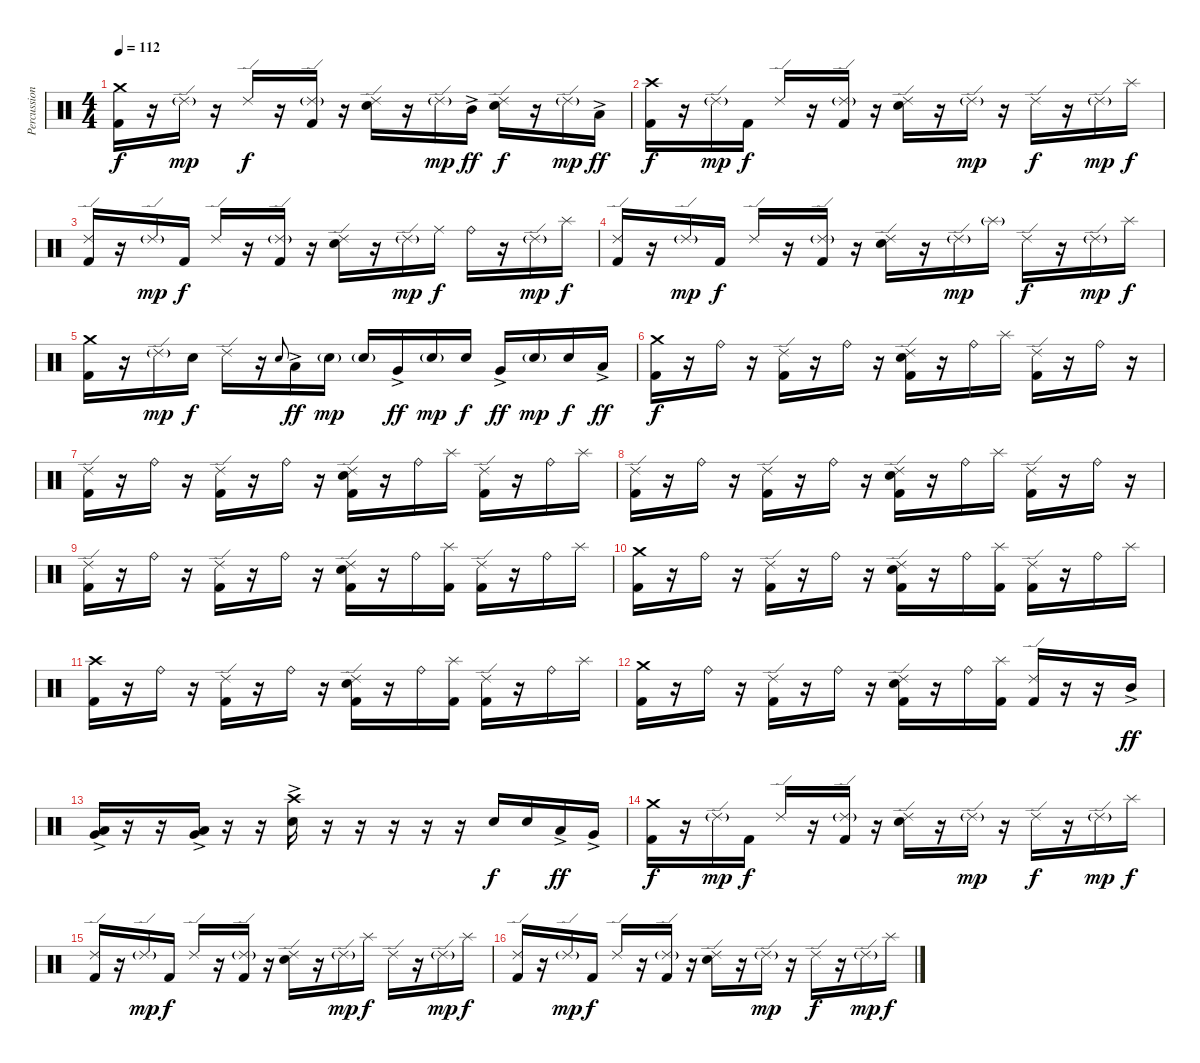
\track ("Percussion" "Percussion") {instrument percussion}
\staff {score}
\articulation defaults
\ts (4 4)
\tempo 112
\clef neutral
\ks c
("Crash medium (hit)" "Kick (hit) 2").16{dy f} r.16 "Ride (edge) 2"{g}.16{dy mp} r.16 "Ride (edge) 2".16{dy f} r.16 ("Ride (edge) 2"{g} "Kick (hit) 2").16 r.16 ("Ride (edge) 2" "Electric Snare (hit)").16 r.16 "Ride (edge) 2"{g}.16{dy mp} "Mid Tom (hit)"{ac}.16{dy ff} ("Ride (edge) 2" "Electric Snare (hit)").16{dy f} r.16 "Ride (edge) 2"{g}.16{dy mp} "Low Tom (hit)"{ac}.16{dy ff} |
("Crash high (hit)" "Kick (hit) 2").16{dy f} r.16 "Ride (edge) 2"{g}.16{dy mp} "Kick (hit) 2".16{dy f} "Ride (edge) 2".16 r.16 ("Ride (edge) 2"{g} "Kick (hit) 2").16 r.16 ("Ride (edge) 2" "Electric Snare (hit)").16 r.16 "Ride (edge) 2"{g}.16{dy mp} r.16 "Ride (edge) 2".16{dy f} r.16 "Ride (edge) 2"{g}.16{dy mp} "Splash (hit)".16{dy f} |
("Ride (edge) 2" "Kick (hit) 2").16 r.16 "Ride (edge) 2"{g}.16{dy mp} "Kick (hit) 2".16{dy f} "Ride (edge) 2".16 r.16 ("Ride (edge) 2"{g} "Kick (hit) 2").16 r.16 ("Ride (edge) 2" "Electric Snare (hit)").16 r.16 "Ride (edge) 2"{g}.16{dy mp} "Ride (middle)".16{dy f} "Ride (bell)".16 r.16 "Ride (edge) 2"{g}.16{dy mp} "Splash (hit)".16{dy f} |
("Ride (edge) 2" "Kick (hit) 2").16 r.16 "Ride (edge) 2"{g}.16{dy mp} "Kick (hit) 2".16{dy f} "Ride (edge) 2".16 r.16 ("Ride (edge) 2"{g} "Kick (hit) 2").16 r.16 ("Ride (edge) 2" "Electric Snare (hit)").16 r.16 "Ride (edge) 2"{g}.16{dy mp} "Splash (hit)"{g}.16 "Ride (edge) 2".16{dy f} r.16 "Ride (edge) 2"{g}.16{dy mp} "Splash (hit)".16{dy f} |
("Crash medium (hit)" "Kick (hit) 2").16 r.16 "Ride (edge) 2"{g}.16{dy mp} "Electric Snare (hit)".16{dy f} "Ride (edge) 2".16 r.16 "Electric Snare (hit)".8{gr onbeat} "Low Tom (hit)"{ac}.16{dy ff} "Electric Snare (hit)"{g}.16{dy mp} "Electric Snare (hit)"{g}.16 "Very Low Tom (hit)"{ac}.16{dy ff} "Electric Snare (hit)"{g}.16{dy mp} "Electric Snare (hit)".16{dy f} "Very Low Tom (hit)"{ac}.16{dy ff} "Electric Snare (hit)"{g}.16{dy mp} "Electric Snare (hit)".16{dy f} "Low Floor Tom (hit)"{ac}.16{dy ff} |
("Crash medium (hit)" "Kick (hit) 2").16{dy f} r.16 "Ride (bell)".16 r.16 ("Ride (edge) 2" "Kick (hit) 2").16 r.16 "Ride (bell)".16 r.16 ("Ride (edge) 2" "Electric Snare (hit)" "Kick (hit) 2").16 r.16 "Ride (bell)".16 "Splash (hit)".16 ("Ride (edge) 2" "Kick (hit) 2").16 r.16 "Ride (bell)".16 r.16 |
("Ride (edge) 2" "Kick (hit) 2").16 r.16 "Ride (bell)".16 r.16 ("Ride (edge) 2" "Kick (hit) 2").16 r.16 "Ride (bell)".16 r.16 ("Ride (edge) 2" "Electric Snare (hit)" "Kick (hit) 2").16 r.16 "Ride (bell)".16 "Splash (hit)".16 ("Ride (edge) 2" "Kick (hit) 2").16 r.16 "Ride (bell)".16 "Splash (hit)".16 |
("Ride (edge) 2" "Kick (hit) 2").16 r.16 "Ride (bell)".16 r.16 ("Ride (edge) 2" "Kick (hit) 2").16 r.16 "Ride (bell)".16 r.16 ("Ride (edge) 2" "Electric Snare (hit)" "Kick (hit) 2").16 r.16 "Ride (bell)".16 "Splash (hit)".16 ("Ride (edge) 2" "Kick (hit) 2").16 r.16 "Ride (bell)".16 r.16 |
("Ride (edge) 2" "Kick (hit) 2").16 r.16 "Ride (bell)".16 r.16 ("Ride (edge) 2" "Kick (hit) 2").16 r.16 "Ride (bell)".16 r.16 ("Ride (edge) 2" "Electric Snare (hit)" "Kick (hit) 2").16 r.16 "Ride (bell)".16 ("Splash (hit)" "Kick (hit) 2").16 ("Ride (edge) 2" "Kick (hit) 2").16 r.16 "Ride (bell)".16 "Splash (hit)".16 |
("Crash medium (hit)" "Kick (hit) 2").16 r.16 "Ride (bell)".16 r.16 ("Ride (edge) 2" "Kick (hit) 2").16 r.16 "Ride (bell)".16 r.16 ("Ride (edge) 2" "Electric Snare (hit)" "Kick (hit) 2").16 r.16 "Ride (bell)".16 ("Splash (hit)" "Kick (hit) 2").16 ("Ride (edge) 2" "Kick (hit) 2").16 r.16 "Ride (bell)".16 "Splash (hit)".16 |
("Crash high (hit)" "Kick (hit) 2").16 r.16 "Ride (bell)".16 r.16 ("Ride (edge) 2" "Kick (hit) 2").16 r.16 "Ride (bell)".16 r.16 ("Ride (edge) 2" "Electric Snare (hit)" "Kick (hit) 2").16 r.16 "Ride (bell)".16 ("Splash (hit)" "Kick (hit) 2").16 ("Ride (edge) 2" "Kick (hit) 2").16 r.16 "Ride (bell)".16 "Splash (hit)".16 |
("Crash medium (hit)" "Kick (hit) 2").16 r.16 "Ride (bell)".16 r.16 ("Ride (edge) 2" "Kick (hit) 2").16 r.16 "Ride (bell)".16 r.16 ("Ride (edge) 2" "Electric Snare (hit)" "Kick (hit) 2").16 r.16 "Ride (bell)".16 ("Splash (hit)" "Kick (hit) 2").16 ("Ride (edge) 2" "Kick (hit) 2").16 r.16 r.16 "Mid Tom (hit)"{ac}.16{dy ff} |
("Low Tom (hit)"{ac} "Very Low Tom (hit)"{ac}).16 r.16 r.16 ("Low Tom (hit)"{ac} "Very Low Tom (hit)"{ac}).16 r.16 r.16 ("Crash high (hit)" "Electric Snare (hit)"{ac}).16 r.16 r.16 r.16 r.16 r.16 "Electric Snare (hit)".16{dy f} "Electric Snare (hit)".16 "Low Tom (hit)"{ac}.16{dy ff} "Very Low Tom (hit)"{ac}.16 |
("Crash medium (hit)" "Kick (hit) 2").16{dy f} r.16 "Ride (edge) 2"{g}.16{dy mp} "Kick (hit) 2".16{dy f} "Ride (edge) 2".16 r.16 ("Ride (edge) 2"{g} "Kick (hit) 2").16 r.16 ("Ride (edge) 2" "Electric Snare (hit)").16 r.16 "Ride (edge) 2"{g}.16{dy mp} r.16 "Ride (edge) 2".16{dy f} r.16 "Ride (edge) 2"{g}.16{dy mp} "Splash (hit)".16{dy f} |
("Ride (edge) 2" "Kick (hit) 2").16 r.16 "Ride (edge) 2"{g}.16{dy mp} "Kick (hit) 2".16{dy f} "Ride (edge) 2".16 r.16 ("Ride (edge) 2"{g} "Kick (hit) 2").16 r.16 ("Ride (edge) 2" "Electric Snare (hit)").16 r.16 "Ride (edge) 2"{g}.16{dy mp} "Splash (hit)".16{dy f} "Ride (edge) 2".16 r.16 "Ride (edge) 2"{g}.16{dy mp} "Splash (hit)".16{dy f} |
("Ride (edge) 2" "Kick (hit) 2").16 r.16 "Ride (edge) 2"{g}.16{dy mp} "Kick (hit) 2".16{dy f} "Ride (edge) 2".16 r.16 ("Ride (edge) 2"{g} "Kick (hit) 2").16 r.16 ("Ride (edge) 2" "Electric Snare (hit)").16 r.16 "Ride (edge) 2"{g}.16{dy mp} r.16 "Ride (edge) 2".16{dy f} r.16 "Ride (edge) 2"{g}.16{dy mp} "Splash (hit)".16{dy f}
